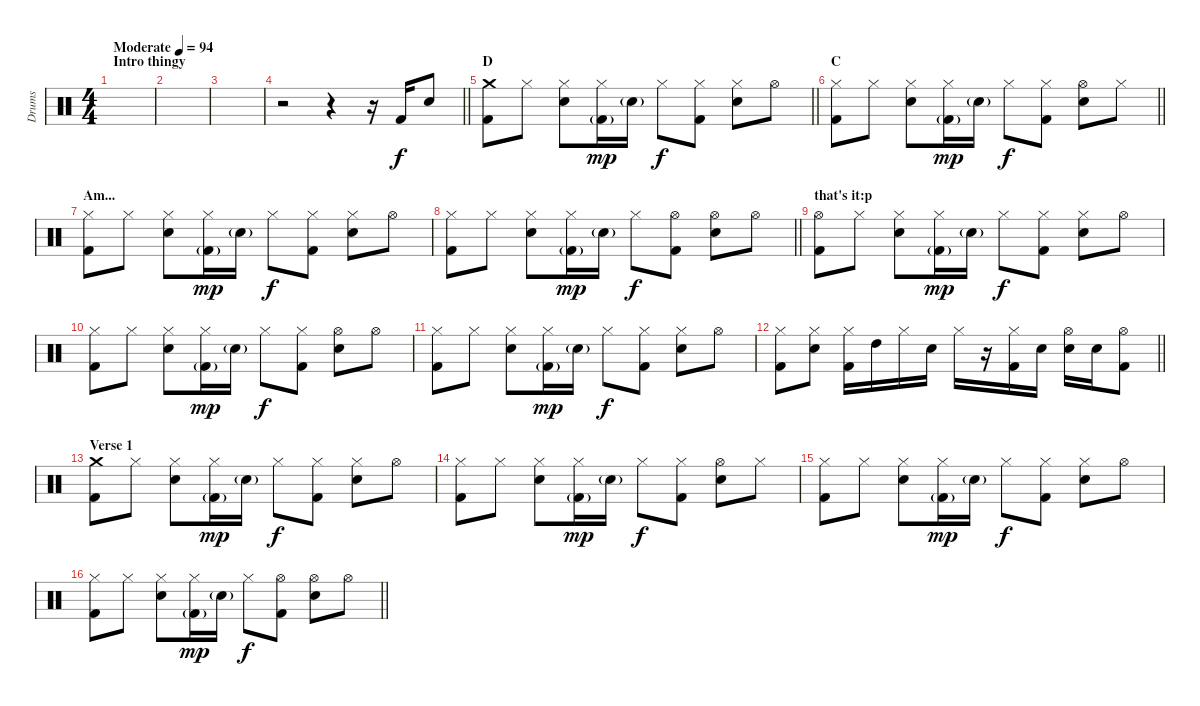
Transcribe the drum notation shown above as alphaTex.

\track ("Drums" "Drums") {instrument percussion}
\staff {score}
\articulation defaults
\ts (4 4)
\section ("" "Intro thingy")
\tempo (94 "Moderate")
\clef neutral
\ks c
|
|
|
\barLineRight lightlight
r.2 r.4 r.16 "Kick (hit) 2".16 "Electric Snare (hit)".8 |
\section ("" "D")
\barLineRight lightlight
("Crash medium (hit)" "Kick (hit) 2").8 "Hi-Hat (closed)".8 ("Hi-Hat (closed)" "Electric Snare (hit)").8 ("Hi-Hat (closed)" "Kick (hit) 2"{g}).16{dy mp} "Electric Snare (hit)"{g}.16 "Hi-Hat (closed)".8{dy f} ("Hi-Hat (closed)" "Kick (hit) 2").8 ("Hi-Hat (closed)" "Electric Snare (hit)").8 "Hi-Hat (open)".8 |
\section ("" "C")
\barLineRight lightlight
("Hi-Hat (closed)" "Kick (hit) 2").8 "Hi-Hat (closed)".8 ("Hi-Hat (closed)" "Electric Snare (hit)").8 ("Hi-Hat (closed)" "Kick (hit) 2"{g}).16{dy mp} "Electric Snare (hit)"{g}.16 "Hi-Hat (closed)".8{dy f} ("Hi-Hat (closed)" "Kick (hit) 2").8 ("Hi-Hat (open)" "Electric Snare (hit)").8 "Hi-Hat (closed)".8 |
\section ("" "Am...")
("Hi-Hat (closed)" "Kick (hit) 2").8 "Hi-Hat (closed)".8 ("Hi-Hat (closed)" "Electric Snare (hit)").8 ("Hi-Hat (closed)" "Kick (hit) 2"{g}).16{dy mp} "Electric Snare (hit)"{g}.16 "Hi-Hat (closed)".8{dy f} ("Hi-Hat (closed)" "Kick (hit) 2").8 ("Hi-Hat (closed)" "Electric Snare (hit)").8 "Hi-Hat (open)".8 |
\barLineRight lightlight
("Hi-Hat (closed)" "Kick (hit) 2").8 "Hi-Hat (closed)".8 ("Hi-Hat (closed)" "Electric Snare (hit)").8 ("Hi-Hat (closed)" "Kick (hit) 2"{g}).16{dy mp} "Electric Snare (hit)"{g}.16 "Hi-Hat (closed)".8{dy f} ("Hi-Hat (open)" "Kick (hit) 2").8 ("Hi-Hat (open)" "Electric Snare (hit)").8 "Hi-Hat (open)".8 |
\section ("" "that's it:p")
("Hi-Hat (open)" "Kick (hit) 2").8 "Hi-Hat (closed)".8 ("Hi-Hat (closed)" "Electric Snare (hit)").8 ("Hi-Hat (closed)" "Kick (hit) 2"{g}).16{dy mp} "Electric Snare (hit)"{g}.16 "Hi-Hat (closed)".8{dy f} ("Hi-Hat (closed)" "Kick (hit) 2").8 ("Hi-Hat (closed)" "Electric Snare (hit)").8 "Hi-Hat (open)".8 |
("Hi-Hat (closed)" "Kick (hit) 2").8 "Hi-Hat (closed)".8 ("Hi-Hat (closed)" "Electric Snare (hit)").8 ("Hi-Hat (closed)" "Kick (hit) 2"{g}).16{dy mp} "Electric Snare (hit)"{g}.16 "Hi-Hat (closed)".8{dy f} ("Hi-Hat (closed)" "Kick (hit) 2").8 ("Hi-Hat (open)" "Electric Snare (hit)").8 "Hi-Hat (open)".8 |
("Hi-Hat (closed)" "Kick (hit) 2").8 "Hi-Hat (closed)".8 ("Hi-Hat (closed)" "Electric Snare (hit)").8 ("Hi-Hat (closed)" "Kick (hit) 2"{g}).16{dy mp} "Electric Snare (hit)"{g}.16 "Hi-Hat (closed)".8{dy f} ("Hi-Hat (closed)" "Kick (hit) 2").8 ("Hi-Hat (closed)" "Electric Snare (hit)").8 "Hi-Hat (open)".8 |
\barLineRight lightlight
("Hi-Hat (closed)" "Kick (hit) 2").8 ("Hi-Hat (closed)" "Electric Snare (hit)").8 ("Hi-Hat (closed)" "Kick (hit) 2").16 "High Tom (hit)".16 "Hi-Hat (closed)".16 "Electric Snare (hit)".16 "Hi-Hat (closed)".16 r.16 ("Hi-Hat (closed)" "Kick (hit) 2").16 "Electric Snare (hit)".16 ("Hi-Hat (open)" "Electric Snare (hit)").16 "Electric Snare (hit)".16 ("Hi-Hat (open)" "Kick (hit) 2").8 |
\section ("" "Verse 1")
("Crash medium (hit)" "Kick (hit) 2").8 "Hi-Hat (closed)".8 ("Hi-Hat (closed)" "Electric Snare (hit)").8 ("Hi-Hat (closed)" "Kick (hit) 2"{g}).16{dy mp} "Electric Snare (hit)"{g}.16 "Hi-Hat (closed)".8{dy f} ("Hi-Hat (closed)" "Kick (hit) 2").8 ("Hi-Hat (closed)" "Electric Snare (hit)").8 "Hi-Hat (open)".8 |
("Hi-Hat (closed)" "Kick (hit) 2").8 "Hi-Hat (closed)".8 ("Hi-Hat (closed)" "Electric Snare (hit)").8 ("Hi-Hat (closed)" "Kick (hit) 2"{g}).16{dy mp} "Electric Snare (hit)"{g}.16 "Hi-Hat (closed)".8{dy f} ("Hi-Hat (closed)" "Kick (hit) 2").8 ("Hi-Hat (open)" "Electric Snare (hit)").8 "Hi-Hat (closed)".8 |
("Hi-Hat (closed)" "Kick (hit) 2").8 "Hi-Hat (closed)".8 ("Hi-Hat (closed)" "Electric Snare (hit)").8 ("Hi-Hat (closed)" "Kick (hit) 2"{g}).16{dy mp} "Electric Snare (hit)"{g}.16 "Hi-Hat (closed)".8{dy f} ("Hi-Hat (closed)" "Kick (hit) 2").8 ("Hi-Hat (closed)" "Electric Snare (hit)").8 "Hi-Hat (open)".8 |
\barLineRight lightlight
("Hi-Hat (closed)" "Kick (hit) 2").8 "Hi-Hat (closed)".8 ("Hi-Hat (closed)" "Electric Snare (hit)").8 ("Hi-Hat (closed)" "Kick (hit) 2"{g}).16{dy mp} "Electric Snare (hit)"{g}.16 "Hi-Hat (closed)".8{dy f} ("Hi-Hat (open)" "Kick (hit) 2").8 ("Hi-Hat (open)" "Electric Snare (hit)").8 "Hi-Hat (open)".8
